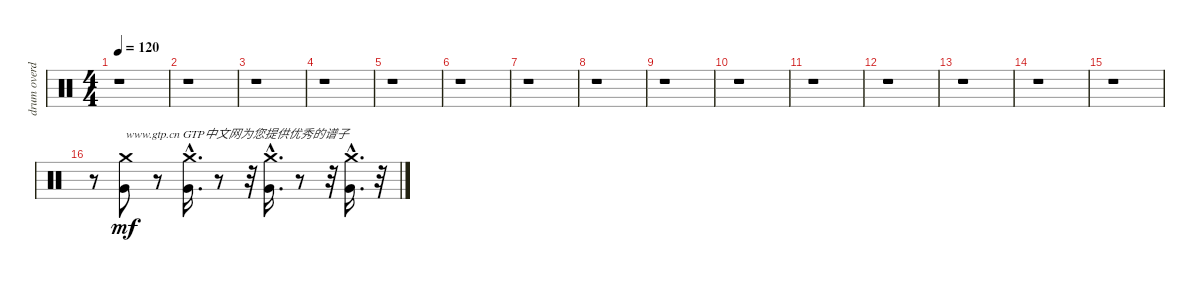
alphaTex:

\track ("drum overdub" "drum overd") {instrument percussion}
\staff {score}
\articulation defaults
\ts (4 4)
\tempo 120
\clef neutral
\ks c
r.1{dy mf} |
r.1 |
r.1 |
r.1 |
r.1 |
r.1 |
r.1 |
r.1 |
r.1 |
r.1 |
r.1 |
r.1 |
r.1 |
r.1 |
r.1 |
r.8 ("Crash medium (hit)" "Very Low Tom (hit)").8{txt "www.gtp.cn GTP中文网为您提供优秀的谱子"} r.8 ("Crash medium (hit)"{hac} "Very Low Tom (hit)"{hac}).16{d} r.8 r.32 ("Crash medium (hit)"{hac} "Very Low Tom (hit)"{hac}).16{d} r.8 r.32 ("Crash medium (hit)"{hac} "Very Low Tom (hit)"{hac}).16{d} r.32
